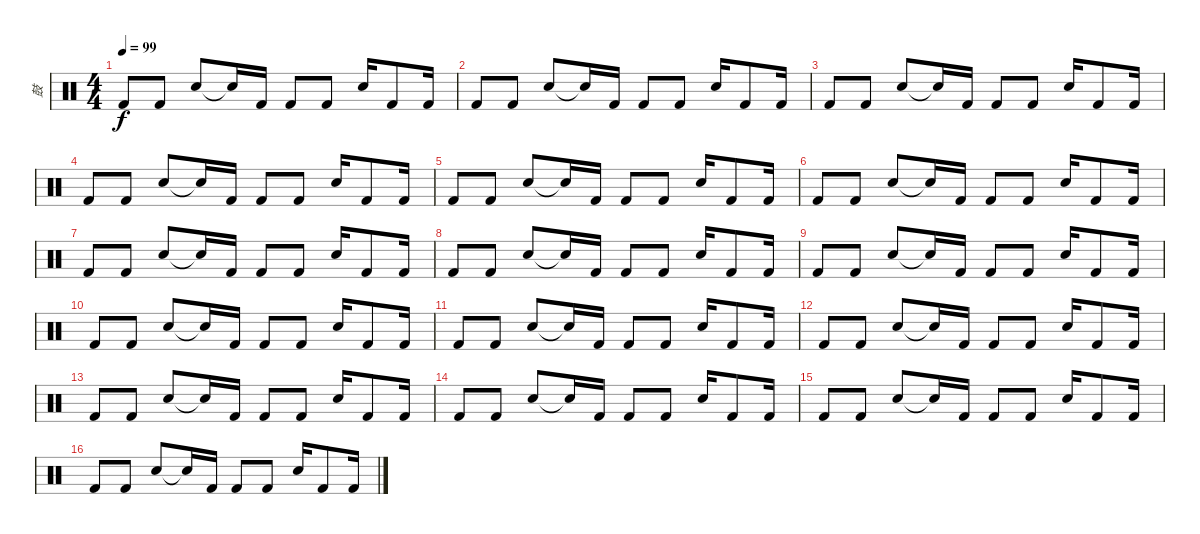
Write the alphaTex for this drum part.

\track ("鼓" "鼓") {instrument percussion}
\staff {score}
\articulation defaults
\ts (4 4)
\tempo 99
\clef neutral
\ks c "Kick (hit) 2".8{dy f} "Kick (hit) 2".8 "Snare (hit) 2".8 "Snare (hit)"{t}.16 "Kick (hit) 2".16 "Kick (hit) 2".8 "Kick (hit) 2".8 "Snare (hit) 2".16 "Kick (hit) 2".8 "Kick (hit) 2".16
|
"Kick (hit) 2".8 "Kick (hit) 2".8 "Snare (hit) 2".8 "Snare (hit)"{t}.16 "Kick (hit) 2".16 "Kick (hit) 2".8 "Kick (hit) 2".8 "Snare (hit) 2".16 "Kick (hit) 2".8 "Kick (hit) 2".16 |
"Kick (hit) 2".8 "Kick (hit) 2".8 "Snare (hit) 2".8 "Snare (hit)"{t}.16 "Kick (hit) 2".16 "Kick (hit) 2".8 "Kick (hit) 2".8 "Snare (hit) 2".16 "Kick (hit) 2".8 "Kick (hit) 2".16 |
"Kick (hit) 2".8 "Kick (hit) 2".8 "Snare (hit) 2".8 "Snare (hit)"{t}.16 "Kick (hit) 2".16 "Kick (hit) 2".8 "Kick (hit) 2".8 "Snare (hit) 2".16 "Kick (hit) 2".8 "Kick (hit) 2".16 |
"Kick (hit) 2".8 "Kick (hit) 2".8 "Snare (hit) 2".8 "Snare (hit)"{t}.16 "Kick (hit) 2".16 "Kick (hit) 2".8 "Kick (hit) 2".8 "Snare (hit) 2".16 "Kick (hit) 2".8 "Kick (hit) 2".16 |
"Kick (hit) 2".8 "Kick (hit) 2".8 "Snare (hit) 2".8 "Snare (hit)"{t}.16 "Kick (hit) 2".16 "Kick (hit) 2".8 "Kick (hit) 2".8 "Snare (hit) 2".16 "Kick (hit) 2".8 "Kick (hit) 2".16 |
"Kick (hit) 2".8 "Kick (hit) 2".8 "Snare (hit) 2".8 "Snare (hit)"{t}.16 "Kick (hit) 2".16 "Kick (hit) 2".8 "Kick (hit) 2".8 "Snare (hit) 2".16 "Kick (hit) 2".8 "Kick (hit) 2".16 |
"Kick (hit) 2".8 "Kick (hit) 2".8 "Snare (hit) 2".8 "Snare (hit)"{t}.16 "Kick (hit) 2".16 "Kick (hit) 2".8 "Kick (hit) 2".8 "Snare (hit) 2".16 "Kick (hit) 2".8 "Kick (hit) 2".16 |
"Kick (hit) 2".8 "Kick (hit) 2".8 "Snare (hit) 2".8 "Snare (hit)"{t}.16 "Kick (hit) 2".16 "Kick (hit) 2".8 "Kick (hit) 2".8 "Snare (hit) 2".16 "Kick (hit) 2".8 "Kick (hit) 2".16 |
"Kick (hit) 2".8 "Kick (hit) 2".8 "Snare (hit) 2".8 "Snare (hit)"{t}.16 "Kick (hit) 2".16 "Kick (hit) 2".8 "Kick (hit) 2".8 "Snare (hit) 2".16 "Kick (hit) 2".8 "Kick (hit) 2".16 |
"Kick (hit) 2".8 "Kick (hit) 2".8 "Snare (hit) 2".8 "Snare (hit)"{t}.16 "Kick (hit) 2".16 "Kick (hit) 2".8 "Kick (hit) 2".8 "Snare (hit) 2".16 "Kick (hit) 2".8 "Kick (hit) 2".16 |
"Kick (hit) 2".8 "Kick (hit) 2".8 "Snare (hit) 2".8 "Snare (hit)"{t}.16 "Kick (hit) 2".16 "Kick (hit) 2".8 "Kick (hit) 2".8 "Snare (hit) 2".16 "Kick (hit) 2".8 "Kick (hit) 2".16 |
"Kick (hit) 2".8 "Kick (hit) 2".8 "Snare (hit) 2".8 "Snare (hit)"{t}.16 "Kick (hit) 2".16 "Kick (hit) 2".8 "Kick (hit) 2".8 "Snare (hit) 2".16 "Kick (hit) 2".8 "Kick (hit) 2".16 |
"Kick (hit) 2".8 "Kick (hit) 2".8 "Snare (hit) 2".8 "Snare (hit)"{t}.16 "Kick (hit) 2".16 "Kick (hit) 2".8 "Kick (hit) 2".8 "Snare (hit) 2".16 "Kick (hit) 2".8 "Kick (hit) 2".16 |
"Kick (hit) 2".8 "Kick (hit) 2".8 "Snare (hit) 2".8 "Snare (hit)"{t}.16 "Kick (hit) 2".16 "Kick (hit) 2".8 "Kick (hit) 2".8 "Snare (hit) 2".16 "Kick (hit) 2".8 "Kick (hit) 2".16 |
"Kick (hit) 2".8 "Kick (hit) 2".8 "Snare (hit) 2".8 "Snare (hit)"{t}.16 "Kick (hit) 2".16 "Kick (hit) 2".8 "Kick (hit) 2".8 "Snare (hit) 2".16 "Kick (hit) 2".8 "Kick (hit) 2".16
